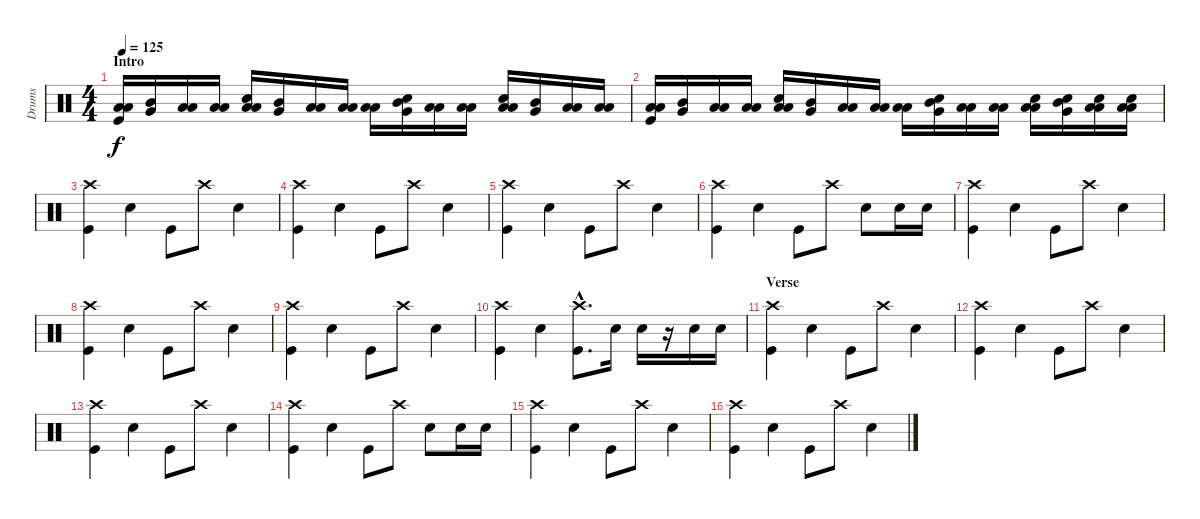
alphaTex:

\track ("Drums" "Drums") {instrument percussion}
\staff {score}
\articulation defaults
\ts (4 4)
\section ("" "Intro")
\tempo 125
\clef neutral
\ks c
("Low Tom (hit)" "Low Floor Tom (hit)" "Kick (hit)").16{dy f} ("Mid Tom (hit)" "Very Low Tom (hit)").16 ("Low Tom (hit)" "Low Floor Tom (hit)").16 ("Low Tom (hit)" "Low Floor Tom (hit)").16 ("Low Tom (hit)" "Low Floor Tom (hit)" "Snare (hit) 2").16 ("Mid Tom (hit)" "Very Low Tom (hit)").16 ("Low Tom (hit)" "Low Floor Tom (hit)").16 ("Low Tom (hit)" "Low Floor Tom (hit)").16 ("Low Tom (hit)" "Low Floor Tom (hit)").16 ("Mid Tom (hit)" "Very Low Tom (hit)" "Snare (hit) 2").16 ("Low Tom (hit)" "Low Floor Tom (hit)").16 ("Low Tom (hit)" "Low Floor Tom (hit)").16 ("Low Tom (hit)" "Low Floor Tom (hit)" "Snare (hit) 2").16 ("Mid Tom (hit)" "Very Low Tom (hit)").16 ("Low Tom (hit)" "Low Floor Tom (hit)").16 ("Low Tom (hit)" "Low Floor Tom (hit)").16 |
("Low Tom (hit)" "Low Floor Tom (hit)" "Kick (hit)").16 ("Mid Tom (hit)" "Very Low Tom (hit)").16 ("Low Tom (hit)" "Low Floor Tom (hit)").16 ("Low Tom (hit)" "Low Floor Tom (hit)").16 ("Low Tom (hit)" "Low Floor Tom (hit)" "Snare (hit) 2").16 ("Mid Tom (hit)" "Very Low Tom (hit)").16 ("Low Tom (hit)" "Low Floor Tom (hit)").16 ("Low Tom (hit)" "Low Floor Tom (hit)").16 ("Low Tom (hit)" "Low Floor Tom (hit)").16 ("Mid Tom (hit)" "Very Low Tom (hit)" "Snare (hit) 2").16 ("Low Tom (hit)" "Low Floor Tom (hit)").16 ("Low Tom (hit)" "Low Floor Tom (hit)").16 ("Low Tom (hit)" "Low Floor Tom (hit)" "Snare (hit) 2").16 ("Mid Tom (hit)" "Very Low Tom (hit)" "Snare (hit) 2").16 ("Low Tom (hit)" "Low Floor Tom (hit)" "Snare (hit) 2").16 ("Low Tom (hit)" "Low Floor Tom (hit)" "Snare (hit) 2").16 |
("Crash high (hit)" "Kick (hit)").4 "Snare (hit) 2".4 "Kick (hit)".8 "Crash high (hit)".8 "Snare (hit) 2".4 |
("Crash high (hit)" "Kick (hit)").4 "Snare (hit) 2".4 "Kick (hit)".8 "Crash high (hit)".8 "Snare (hit) 2".4 |
("Crash high (hit)" "Kick (hit)").4 "Snare (hit) 2".4 "Kick (hit)".8 "Crash high (hit)".8 "Snare (hit) 2".4 |
("Crash high (hit)" "Kick (hit)").4 "Snare (hit) 2".4 "Kick (hit)".8 "Crash high (hit)".8 "Snare (hit) 2".8 "Snare (hit) 2".16 "Snare (hit) 2".16 |
("Crash high (hit)" "Kick (hit)").4 "Snare (hit) 2".4 "Kick (hit)".8 "Crash high (hit)".8 "Snare (hit) 2".4 |
("Crash high (hit)" "Kick (hit)").4 "Snare (hit) 2".4 "Kick (hit)".8 "Crash high (hit)".8 "Snare (hit) 2".4 |
("Crash high (hit)" "Kick (hit)").4 "Snare (hit) 2".4 "Kick (hit)".8 "Crash high (hit)".8 "Snare (hit) 2".4 |
("Crash high (hit)" "Kick (hit)").4 "Snare (hit) 2".4 ("Crash high (hit)"{hac} "Kick (hit)"{hac}).8{d} "Snare (hit) 2".16 "Snare (hit) 2".16 r.16 "Snare (hit) 2".16 "Snare (hit) 2".16 |
\section ("" "Verse")
("Crash high (hit)" "Kick (hit)").4 "Snare (hit) 2".4 "Kick (hit)".8 "Crash high (hit)".8 "Snare (hit) 2".4 |
("Crash high (hit)" "Kick (hit)").4 "Snare (hit) 2".4 "Kick (hit)".8 "Crash high (hit)".8 "Snare (hit) 2".4 |
("Crash high (hit)" "Kick (hit)").4 "Snare (hit) 2".4 "Kick (hit)".8 "Crash high (hit)".8 "Snare (hit) 2".4 |
("Crash high (hit)" "Kick (hit)").4 "Snare (hit) 2".4 "Kick (hit)".8 "Crash high (hit)".8 "Snare (hit) 2".8 "Snare (hit) 2".16 "Snare (hit) 2".16 |
("Crash high (hit)" "Kick (hit)").4 "Snare (hit) 2".4 "Kick (hit)".8 "Crash high (hit)".8 "Snare (hit) 2".4 |
("Crash high (hit)" "Kick (hit)").4 "Snare (hit) 2".4 "Kick (hit)".8 "Crash high (hit)".8 "Snare (hit) 2".4
